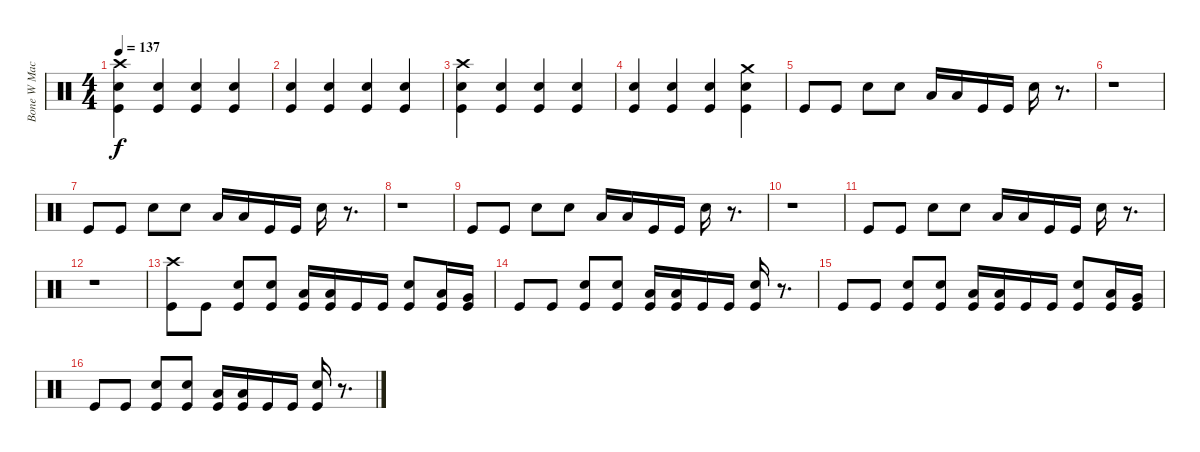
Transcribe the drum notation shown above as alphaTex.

\track ("Bone W Machine Drums" "Bone W Mac") {instrument percussion}
\staff {score}
\articulation defaults
\ts (4 4)
\tempo 137
\clef neutral
\ks c
("Crash high (hit)" "Snare (hit) 2" "Kick (hit)").4{dy f} ("Snare (hit) 2" "Kick (hit)").4 ("Snare (hit) 2" "Kick (hit)").4 ("Snare (hit) 2" "Kick (hit)").4 |
("Snare (hit) 2" "Kick (hit)").4 ("Snare (hit) 2" "Kick (hit)").4 ("Snare (hit) 2" "Kick (hit)").4 ("Snare (hit) 2" "Kick (hit)").4 |
("Crash high (hit)" "Snare (hit) 2" "Kick (hit)").4 ("Snare (hit) 2" "Kick (hit)").4 ("Snare (hit) 2" "Kick (hit)").4 ("Snare (hit) 2" "Kick (hit)").4 |
("Snare (hit) 2" "Kick (hit)").4 ("Snare (hit) 2" "Kick (hit)").4 ("Snare (hit) 2" "Kick (hit)").4 ("Crash medium (hit)" "Snare (hit) 2" "Kick (hit)").4 |
"Kick (hit)".8 "Kick (hit)".8 "Snare (hit) 2".8 "Snare (hit) 2".8 "Low Tom (hit)".16 "Low Tom (hit)".16 "Kick (hit)".16 "Kick (hit)".16 "Snare (hit) 2".16 r.8{d} |
r.1 |
"Kick (hit)".8 "Kick (hit)".8 "Snare (hit) 2".8 "Snare (hit) 2".8 "Low Tom (hit)".16 "Low Tom (hit)".16 "Kick (hit)".16 "Kick (hit)".16 "Snare (hit) 2".16 r.8{d} |
r.1 |
"Kick (hit)".8 "Kick (hit)".8 "Snare (hit) 2".8 "Snare (hit) 2".8 "Low Tom (hit)".16 "Low Tom (hit)".16 "Kick (hit)".16 "Kick (hit)".16 "Snare (hit) 2".16 r.8{d} |
r.1 |
"Kick (hit)".8 "Kick (hit)".8 "Snare (hit) 2".8 "Snare (hit) 2".8 "Low Tom (hit)".16 "Low Tom (hit)".16 "Kick (hit)".16 "Kick (hit)".16 "Snare (hit) 2".16 r.8{d} |
r.1 |
("Crash high (hit)" "Kick (hit)").8 "Kick (hit)".8 ("Snare (hit) 2" "Kick (hit)").8 ("Snare (hit) 2" "Kick (hit)").8 ("Low Tom (hit)" "Kick (hit)").16 ("Low Tom (hit)" "Kick (hit)").16 "Kick (hit)".16 "Kick (hit)".16 ("Snare (hit) 2" "Kick (hit)").8 ("Low Tom (hit)" "Kick (hit)").16 ("Very Low Tom (hit)" "Kick (hit)").16 |
"Kick (hit)".8 "Kick (hit)".8 ("Snare (hit) 2" "Kick (hit)").8 ("Snare (hit) 2" "Kick (hit)").8 ("Low Tom (hit)" "Kick (hit)").16 ("Low Tom (hit)" "Kick (hit)").16 "Kick (hit)".16 "Kick (hit)".16 ("Snare (hit) 2" "Kick (hit)").16 r.8{d} |
"Kick (hit)".8 "Kick (hit)".8 ("Snare (hit) 2" "Kick (hit)").8 ("Snare (hit) 2" "Kick (hit)").8 ("Low Tom (hit)" "Kick (hit)").16 ("Low Tom (hit)" "Kick (hit)").16 "Kick (hit)".16 "Kick (hit)".16 ("Snare (hit) 2" "Kick (hit)").8 ("Low Tom (hit)" "Kick (hit)").16 ("Very Low Tom (hit)" "Kick (hit)").16 |
"Kick (hit)".8 "Kick (hit)".8 ("Snare (hit) 2" "Kick (hit)").8 ("Snare (hit) 2" "Kick (hit)").8 ("Low Tom (hit)" "Kick (hit)").16 ("Low Tom (hit)" "Kick (hit)").16 "Kick (hit)".16 "Kick (hit)".16 ("Snare (hit) 2" "Kick (hit)").16 r.8{d}
